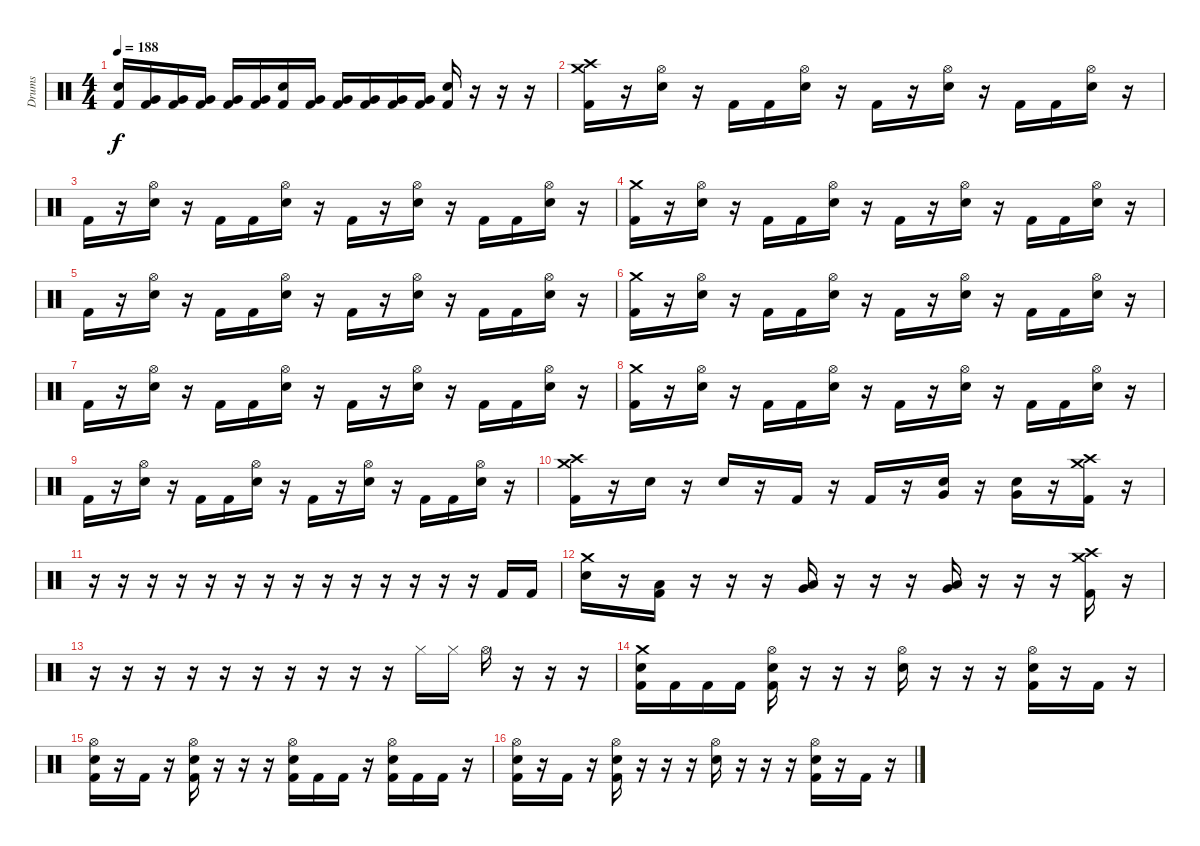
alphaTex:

\track ("Drums" "Drums") {instrument percussion}
\staff {score}
\articulation defaults
\ts (4 4)
\tempo 188
\clef neutral
\ks c
("Snare (hit) 2" "Kick (hit) 2").16{dy f} ("Very Low Tom (hit)" "Kick (hit) 2").16 ("Very Low Tom (hit)" "Kick (hit) 2").16 ("Very Low Tom (hit)" "Kick (hit) 2").16 ("Very Low Tom (hit)" "Kick (hit) 2").16 ("Very Low Tom (hit)" "Kick (hit) 2").16 ("Snare (hit) 2" "Kick (hit) 2").16 ("Very Low Tom (hit)" "Kick (hit) 2").16 ("Very Low Tom (hit)" "Kick (hit) 2").16 ("Very Low Tom (hit)" "Kick (hit) 2").16 ("Very Low Tom (hit)" "Kick (hit) 2").16 ("Very Low Tom (hit)" "Kick (hit) 2").16 ("Snare (hit) 2" "Kick (hit) 2").16 r.16 r.16 r.16 |
("Crash medium (hit)" "Crash high (hit)" "Kick (hit) 2").16 r.16 ("Hi-Hat (open)" "Snare (hit) 2").16 r.16 "Kick (hit) 2".16 "Kick (hit) 2".16 ("Hi-Hat (open)" "Snare (hit) 2").16 r.16 "Kick (hit) 2".16 r.16 ("Hi-Hat (open)" "Snare (hit) 2").16 r.16 "Kick (hit) 2".16 "Kick (hit) 2".16 ("Hi-Hat (open)" "Snare (hit) 2").16 r.16 |
"Kick (hit) 2".16 r.16 ("Hi-Hat (open)" "Snare (hit) 2").16 r.16 "Kick (hit) 2".16 "Kick (hit) 2".16 ("Hi-Hat (open)" "Snare (hit) 2").16 r.16 "Kick (hit) 2".16 r.16 ("Hi-Hat (open)" "Snare (hit) 2").16 r.16 "Kick (hit) 2".16 "Kick (hit) 2".16 ("Hi-Hat (open)" "Snare (hit) 2").16 r.16 |
("Crash medium (hit)" "Kick (hit) 2").16 r.16 ("Hi-Hat (open)" "Snare (hit) 2").16 r.16 "Kick (hit) 2".16 "Kick (hit) 2".16 ("Hi-Hat (open)" "Snare (hit) 2").16 r.16 "Kick (hit) 2".16 r.16 ("Hi-Hat (open)" "Snare (hit) 2").16 r.16 "Kick (hit) 2".16 "Kick (hit) 2".16 ("Hi-Hat (open)" "Snare (hit) 2").16 r.16 |
"Kick (hit) 2".16 r.16 ("Hi-Hat (open)" "Snare (hit) 2").16 r.16 "Kick (hit) 2".16 "Kick (hit) 2".16 ("Hi-Hat (open)" "Snare (hit) 2").16 r.16 "Kick (hit) 2".16 r.16 ("Hi-Hat (open)" "Snare (hit) 2").16 r.16 "Kick (hit) 2".16 "Kick (hit) 2".16 ("Hi-Hat (open)" "Snare (hit) 2").16 r.16 |
("Crash medium (hit)" "Kick (hit) 2").16 r.16 ("Hi-Hat (open)" "Snare (hit) 2").16 r.16 "Kick (hit) 2".16 "Kick (hit) 2".16 ("Hi-Hat (open)" "Snare (hit) 2").16 r.16 "Kick (hit) 2".16 r.16 ("Hi-Hat (open)" "Snare (hit) 2").16 r.16 "Kick (hit) 2".16 "Kick (hit) 2".16 ("Hi-Hat (open)" "Snare (hit) 2").16 r.16 |
"Kick (hit) 2".16 r.16 ("Hi-Hat (open)" "Snare (hit) 2").16 r.16 "Kick (hit) 2".16 "Kick (hit) 2".16 ("Hi-Hat (open)" "Snare (hit) 2").16 r.16 "Kick (hit) 2".16 r.16 ("Hi-Hat (open)" "Snare (hit) 2").16 r.16 "Kick (hit) 2".16 "Kick (hit) 2".16 ("Hi-Hat (open)" "Snare (hit) 2").16 r.16 |
("Crash medium (hit)" "Kick (hit) 2").16 r.16 ("Hi-Hat (open)" "Snare (hit) 2").16 r.16 "Kick (hit) 2".16 "Kick (hit) 2".16 ("Hi-Hat (open)" "Snare (hit) 2").16 r.16 "Kick (hit) 2".16 r.16 ("Hi-Hat (open)" "Snare (hit) 2").16 r.16 "Kick (hit) 2".16 "Kick (hit) 2".16 ("Hi-Hat (open)" "Snare (hit) 2").16 r.16 |
"Kick (hit) 2".16 r.16 ("Hi-Hat (open)" "Snare (hit) 2").16 r.16 "Kick (hit) 2".16 "Kick (hit) 2".16 ("Hi-Hat (open)" "Snare (hit) 2").16 r.16 "Kick (hit) 2".16 r.16 ("Hi-Hat (open)" "Snare (hit) 2").16 r.16 "Kick (hit) 2".16 "Kick (hit) 2".16 ("Hi-Hat (open)" "Snare (hit) 2").16 r.16 |
("Crash medium (hit)" "Crash high (hit)" "Kick (hit) 2").16 r.16 "Snare (hit) 2".16 r.16 "Snare (hit) 2".16 r.16 "Kick (hit) 2".16 r.16 "Kick (hit) 2".16 r.16 ("Snare (hit) 2" "Very Low Tom (hit)").16 r.16 ("Snare (hit) 2" "Very Low Tom (hit)").16 r.16 ("Crash medium (hit)" "Crash high (hit)" "Kick (hit) 2").16 r.16 |
r.16 r.16 r.16 r.16 r.16 r.16 r.16 r.16 r.16 r.16 r.16 r.16 r.16 r.16 "Kick (hit) 2".16 "Kick (hit) 2".16 |
("Crash medium (hit)" "Snare (hit) 2").16 r.16 ("Low Tom (hit)" "Kick (hit) 2").16 r.16 r.16 r.16 ("Low Tom (hit)" "Very Low Tom (hit)").16 r.16 r.16 r.16 ("Very Low Tom (hit)" "Low Floor Tom (hit)").16 r.16 r.16 r.16 ("Crash medium (hit)" "Crash high (hit)" "Kick (hit) 2").16 r.16 |
r.16 r.16 r.16 r.16 r.16 r.16 r.16 r.16 r.16 r.16 "Hi-Hat (closed)".16 "Hi-Hat (closed)".16 "Hi-Hat (open)".16 r.16 r.16 r.16 |
("Crash medium (hit)" "Snare (hit) 2" "Kick (hit) 2").16 "Kick (hit) 2".16 "Kick (hit) 2".16 "Kick (hit) 2".16 ("Hi-Hat (open)" "Snare (hit) 2" "Kick (hit) 2").16 r.16 r.16 r.16 ("Hi-Hat (open)" "Snare (hit) 2").16 r.16 r.16 r.16 ("Hi-Hat (open)" "Snare (hit) 2" "Kick (hit) 2").16 r.16 "Kick (hit) 2".16 r.16 |
("Hi-Hat (open)" "Snare (hit) 2" "Kick (hit) 2").16 r.16 "Kick (hit) 2".16 r.16 ("Hi-Hat (open)" "Snare (hit) 2" "Kick (hit) 2").16 r.16 r.16 r.16 ("Hi-Hat (open)" "Snare (hit) 2" "Kick (hit) 2").16 "Kick (hit) 2".16 "Kick (hit) 2".16 r.16 ("Hi-Hat (open)" "Snare (hit) 2" "Kick (hit) 2").16 "Kick (hit) 2".16 "Kick (hit) 2".16 r.16 |
("Hi-Hat (open)" "Snare (hit) 2" "Kick (hit) 2").16 r.16 "Kick (hit) 2".16 r.16 ("Hi-Hat (open)" "Snare (hit) 2" "Kick (hit) 2").16 r.16 r.16 r.16 ("Hi-Hat (open)" "Snare (hit) 2").16 r.16 r.16 r.16 ("Hi-Hat (open)" "Snare (hit) 2" "Kick (hit) 2").16 r.16 "Kick (hit) 2".16 r.16
